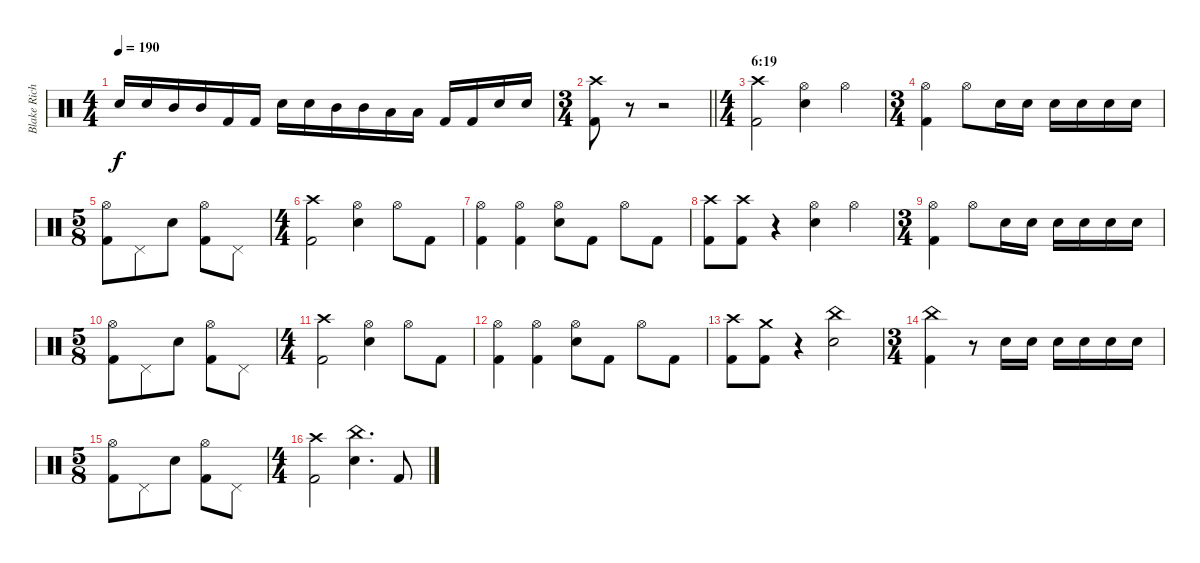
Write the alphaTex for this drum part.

\track ("Blake Richardson" "Blake Rich") {instrument percussion}
\staff {score}
\articulation defaults
\ts (4 4)
\tempo 190
\clef neutral
\ks c "Electric Snare (hit)".16{dy f volume 13} "Electric Snare (hit)".16 "Mid Tom (hit)".16 "Mid Tom (hit)".16{beam merge} "Kick (hit) 2".16 "Kick (hit) 2".16{beam split} "Electric Snare (hit)".16 "Electric Snare (hit)".16{beam merge} "Mid Tom (hit)".16 "Mid Tom (hit)".16 "Low Tom (hit)".16 "Low Tom (hit)".16 "Kick (hit) 2".16 "Kick (hit) 2".16 "Electric Snare (hit)".16 "Electric Snare (hit)".16
|
\ts (3 4)
\barLineRight lightlight
("Crash high (hit)" "Kick (hit) 2").8 r.8{volume 0} r.2 |
\ts (4 4)
\section ("" "6:19")
("Crash high (hit)" "Kick (hit) 2").2{volume 13} ("Hi-Hat (open)" "Electric Snare (hit)").4 "Hi-Hat (open)".4 |
\ts (3 4)
("Hi-Hat (open)" "Kick (hit) 2").4 "Hi-Hat (open)".8 "Electric Snare (hit)".16 "Electric Snare (hit)".16 "Electric Snare (hit)".16 "Electric Snare (hit)".16 "Electric Snare (hit)".16 "Electric Snare (hit)".16 |
\ts (5 8)
("Hi-Hat (open)" "Kick (hit) 2").8 "Pedal Hi-Hat (hit)".8 "Electric Snare (hit)".8 ("Hi-Hat (open)" "Kick (hit) 2").8 "Pedal Hi-Hat (hit)".8 |
\ts (4 4)
("Crash high (hit)" "Kick (hit) 2").2 ("Hi-Hat (open)" "Electric Snare (hit)").4 "Hi-Hat (open)".8 "Kick (hit) 2".8 |
("Hi-Hat (open)" "Kick (hit) 2").4 ("Hi-Hat (open)" "Kick (hit) 2").4 ("Hi-Hat (open)" "Electric Snare (hit)").8 "Kick (hit) 2".8 "Hi-Hat (open)".8 "Kick (hit) 2".8 |
("Crash high (hit)" "Kick (hit) 2").8 ("Crash high (hit)" "Kick (hit) 2").8 r.4 ("Hi-Hat (open)" "Electric Snare (hit)").4 "Hi-Hat (open)".4 |
\ts (3 4)
("Hi-Hat (open)" "Kick (hit) 2").4 "Hi-Hat (open)".8 "Electric Snare (hit)".16 "Electric Snare (hit)".16 "Electric Snare (hit)".16 "Electric Snare (hit)".16 "Electric Snare (hit)".16 "Electric Snare (hit)".16 |
\ts (5 8)
("Hi-Hat (open)" "Kick (hit) 2").8 "Pedal Hi-Hat (hit)".8 "Electric Snare (hit)".8 ("Hi-Hat (open)" "Kick (hit) 2").8 "Pedal Hi-Hat (hit)".8 |
\ts (4 4)
("Crash high (hit)" "Kick (hit) 2").2 ("Hi-Hat (open)" "Electric Snare (hit)").4 "Hi-Hat (open)".8 "Kick (hit) 2".8 |
("Hi-Hat (open)" "Kick (hit) 2").4 ("Hi-Hat (open)" "Kick (hit) 2").4 ("Hi-Hat (open)" "Electric Snare (hit)").8 "Kick (hit) 2".8 "Hi-Hat (open)".8 "Kick (hit) 2".8 |
("Crash high (hit)" "Kick (hit) 2").8 ("Crash medium (hit)" "Kick (hit) 2").8 r.4 ("China (hit)" "Electric Snare (hit)").2 |
\ts (3 4)
("Kick (hit) 2" "China (hit)").4 r.8 "Electric Snare (hit)".16 "Electric Snare (hit)".16 "Electric Snare (hit)".16 "Electric Snare (hit)".16 "Electric Snare (hit)".16 "Electric Snare (hit)".16 |
\ts (5 8)
("Hi-Hat (open)" "Kick (hit) 2").8 "Pedal Hi-Hat (hit)".8 "Electric Snare (hit)".8 ("Hi-Hat (open)" "Kick (hit) 2").8 "Pedal Hi-Hat (hit)".8 |
\ts (4 4)
("Crash high (hit)" "Kick (hit) 2").2 ("China (hit)" "Electric Snare (hit)").4{d} "Kick (hit) 2".8
